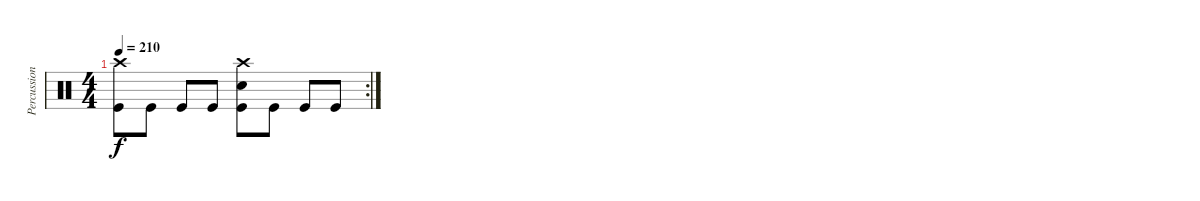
\track ("Percussion" "Percussion") {instrument percussion}
\staff {score}
\articulation defaults
\rc 2
\ts (4 4)
\tempo 210
\clef neutral
\ks c
("Crash high (hit)" "Kick (hit)").8{dy f} "Kick (hit)".8 "Kick (hit)".8 "Kick (hit)".8 ("Crash high (hit)" "Snare (hit) 2" "Kick (hit)").8 "Kick (hit)".8 "Kick (hit)".8 "Kick (hit)".8
